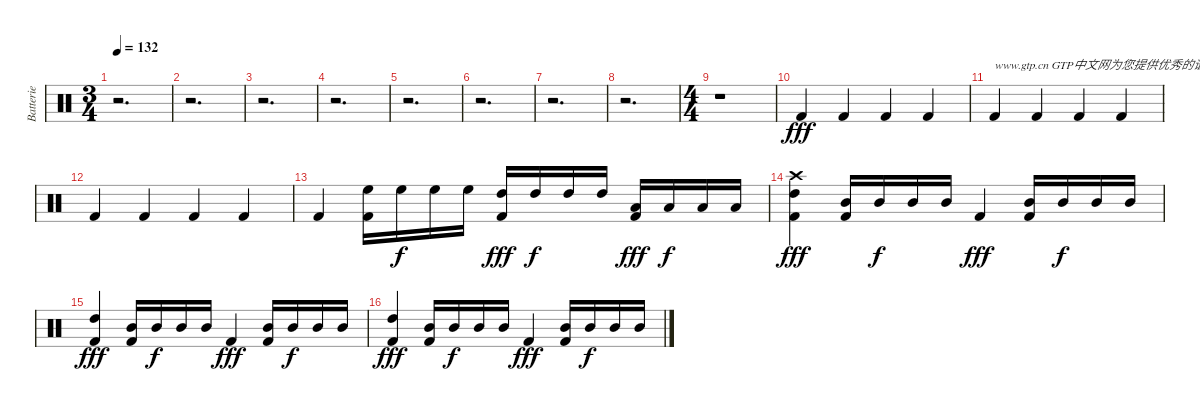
\track ("Batterie" "Batterie") {instrument percussion}
\staff {score}
\articulation defaults
\ts (3 4)
\tempo 132
\clef neutral
\ks c
r.2{d dy fff} |
r.2{d} |
r.2{d} |
r.2{d} |
r.2{d} |
r.2{d} |
r.2{d} |
r.2{d} |
\ts (4 4)
r.1 |
"Kick (hit) 2".4 "Kick (hit) 2".4 "Kick (hit) 2".4 "Kick (hit) 2".4 |
"Kick (hit) 2".4{txt "www.gtp.cn GTP中文网为您提供优秀的谱子"} "Kick (hit) 2".4 "Kick (hit) 2".4 "Kick (hit) 2".4 |
"Kick (hit) 2".4 "Kick (hit) 2".4 "Kick (hit) 2".4 "Kick (hit) 2".4 |
"Kick (hit) 2".4 ("High Floor Tom (hit)" "Kick (hit) 2").16 "High Floor Tom (hit)".16{dy f} "High Floor Tom (hit)".16 "High Floor Tom (hit)".16 ("High Tom (hit)" "Kick (hit) 2").16{dy fff} "High Tom (hit)".16{dy f} "High Tom (hit)".16 "High Tom (hit)".16 ("Low Tom (hit)" "Kick (hit) 2").16{dy fff} "Low Tom (hit)".16{dy f} "Low Tom (hit)".16 "Low Tom (hit)".16 |
("Crash high (hit)" "High Tom (hit)" "Kick (hit) 2").4{dy fff} ("Mid Tom (hit)" "Kick (hit) 2").16 "Mid Tom (hit)".16{dy f} "Mid Tom (hit)".16 "Mid Tom (hit)".16 "Kick (hit) 2".4{dy fff} ("Mid Tom (hit)" "Kick (hit) 2").16 "Mid Tom (hit)".16{dy f} "Mid Tom (hit)".16 "Mid Tom (hit)".16 |
("High Tom (hit)" "Kick (hit) 2").4{dy fff} ("Mid Tom (hit)" "Kick (hit) 2").16 "Mid Tom (hit)".16{dy f} "Mid Tom (hit)".16 "Mid Tom (hit)".16 "Kick (hit) 2".4{dy fff} ("Mid Tom (hit)" "Kick (hit) 2").16 "Mid Tom (hit)".16{dy f} "Mid Tom (hit)".16 "Mid Tom (hit)".16 |
("High Tom (hit)" "Kick (hit) 2").4{dy fff} ("Mid Tom (hit)" "Kick (hit) 2").16 "Mid Tom (hit)".16{dy f} "Mid Tom (hit)".16 "Mid Tom (hit)".16 "Kick (hit) 2".4{dy fff} ("Mid Tom (hit)" "Kick (hit) 2").16 "Mid Tom (hit)".16{dy f} "Mid Tom (hit)".16 "Mid Tom (hit)".16
